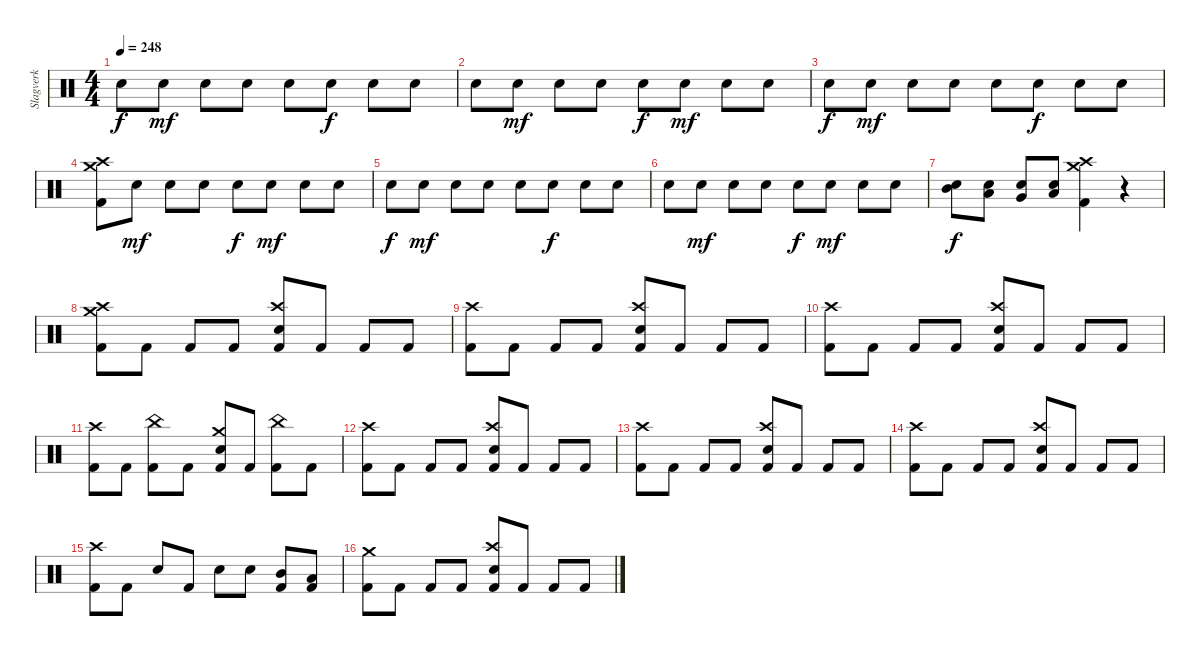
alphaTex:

\track ("Slagverk" "Slagverk") {instrument percussion}
\staff {score}
\articulation defaults
\ts (4 4)
\tempo 248
\clef neutral
\ks c "Snare (hit) 2".8{dy f} "Snare (hit) 2".8{dy mf} "Snare (hit) 2".8 "Snare (hit) 2".8 "Snare (hit) 2".8 "Snare (hit) 2".8{dy f} "Snare (hit) 2".8 "Snare (hit) 2".8
|
"Snare (hit) 2".8 "Snare (hit) 2".8{dy mf} "Snare (hit) 2".8 "Snare (hit) 2".8 "Snare (hit) 2".8{dy f} "Snare (hit) 2".8{dy mf} "Snare (hit) 2".8 "Snare (hit) 2".8 |
"Snare (hit) 2".8{dy f} "Snare (hit) 2".8{dy mf} "Snare (hit) 2".8 "Snare (hit) 2".8 "Snare (hit) 2".8 "Snare (hit) 2".8{dy f} "Snare (hit) 2".8 "Snare (hit) 2".8 |
("Crash medium (hit)" "Crash high (hit)" "Kick (hit) 2").8 "Snare (hit) 2".8{dy mf} "Snare (hit) 2".8 "Snare (hit) 2".8 "Snare (hit) 2".8{dy f} "Snare (hit) 2".8{dy mf} "Snare (hit) 2".8 "Snare (hit) 2".8 |
"Snare (hit) 2".8{dy f} "Snare (hit) 2".8{dy mf} "Snare (hit) 2".8 "Snare (hit) 2".8 "Snare (hit) 2".8 "Snare (hit) 2".8{dy f} "Snare (hit) 2".8 "Snare (hit) 2".8 |
"Snare (hit) 2".8 "Snare (hit) 2".8{dy mf} "Snare (hit) 2".8 "Snare (hit) 2".8 "Snare (hit) 2".8{dy f} "Snare (hit) 2".8{dy mf} "Snare (hit) 2".8 "Snare (hit) 2".8 |
("Mid Tom (hit)" "Snare (hit) 2").8{dy f} ("Low Tom (hit)" "Snare (hit) 2").8 ("Very Low Tom (hit)" "Snare (hit) 2").8 ("Low Floor Tom (hit)" "Snare (hit) 2").8 ("Crash medium (hit)" "Crash high (hit)" "Kick (hit) 2").4 r.4 |
("Crash medium (hit)" "Crash high (hit)" "Kick (hit) 2").8 "Kick (hit) 2".8 "Kick (hit) 2".8 "Kick (hit) 2".8 ("Crash high (hit)" "Snare (hit) 2" "Kick (hit) 2").8 "Kick (hit) 2".8 "Kick (hit) 2".8 "Kick (hit) 2".8 |
("Crash high (hit)" "Kick (hit) 2").8 "Kick (hit) 2".8 "Kick (hit) 2".8 "Kick (hit) 2".8 ("Crash high (hit)" "Snare (hit) 2" "Kick (hit) 2").8 "Kick (hit) 2".8 "Kick (hit) 2".8 "Kick (hit) 2".8 |
("Crash high (hit)" "Kick (hit) 2").8 "Kick (hit) 2".8 "Kick (hit) 2".8 "Kick (hit) 2".8 ("Crash high (hit)" "Snare (hit) 2" "Kick (hit) 2").8 "Kick (hit) 2".8 "Kick (hit) 2".8 "Kick (hit) 2".8 |
("Crash high (hit)" "Kick (hit) 2").8 "Kick (hit) 2".8 ("China (hit)" "Kick (hit) 2").8 "Kick (hit) 2".8 ("Crash medium (hit)" "Snare (hit) 2" "Kick (hit) 2").8 "Kick (hit) 2".8 ("China (hit)" "Kick (hit) 2").8 "Kick (hit) 2".8 |
("Crash high (hit)" "Kick (hit) 2").8 "Kick (hit) 2".8 "Kick (hit) 2".8 "Kick (hit) 2".8 ("Crash high (hit)" "Snare (hit) 2" "Kick (hit) 2").8 "Kick (hit) 2".8 "Kick (hit) 2".8 "Kick (hit) 2".8 |
("Crash high (hit)" "Kick (hit) 2").8 "Kick (hit) 2".8 "Kick (hit) 2".8 "Kick (hit) 2".8 ("Crash high (hit)" "Snare (hit) 2" "Kick (hit) 2").8 "Kick (hit) 2".8 "Kick (hit) 2".8 "Kick (hit) 2".8 |
("Crash high (hit)" "Kick (hit) 2").8 "Kick (hit) 2".8 "Kick (hit) 2".8 "Kick (hit) 2".8 ("Crash high (hit)" "Snare (hit) 2" "Kick (hit) 2").8 "Kick (hit) 2".8 "Kick (hit) 2".8 "Kick (hit) 2".8 |
("Crash high (hit)" "Kick (hit) 2").8 "Kick (hit) 2".8 "Snare (hit) 2".8 "Kick (hit) 2".8 "Snare (hit) 2".8 "Snare (hit) 2".8 ("Mid Tom (hit)" "Kick (hit) 2").8 ("Low Tom (hit)" "Kick (hit) 2").8 |
("Crash medium (hit)" "Kick (hit) 2").8 "Kick (hit) 2".8 "Kick (hit) 2".8 "Kick (hit) 2".8 ("Crash high (hit)" "Snare (hit) 2" "Kick (hit) 2").8 "Kick (hit) 2".8 "Kick (hit) 2".8 "Kick (hit) 2".8
